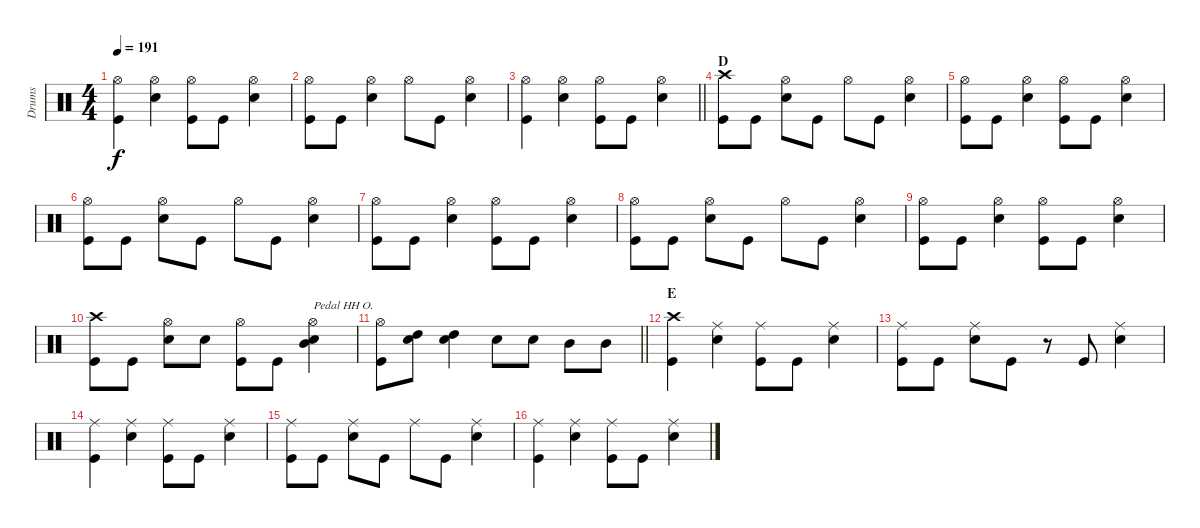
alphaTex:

\track ("Drums" "Drums") {instrument percussion}
\staff {score}
\articulation defaults
\ts (4 4)
\tempo 191
\clef neutral
\ks c
("Hi-Hat (open)" "Kick (hit)").4{dy f} ("Hi-Hat (open)" "Electric Snare (hit)").4 ("Hi-Hat (open)" "Kick (hit)").8 "Kick (hit)".8 ("Hi-Hat (open)" "Electric Snare (hit)").4 |
("Hi-Hat (open)" "Kick (hit)").8 "Kick (hit)".8 ("Hi-Hat (open)" "Electric Snare (hit)").4 "Hi-Hat (open)".8 "Kick (hit)".8 ("Hi-Hat (open)" "Electric Snare (hit)").4 |
\barLineRight lightlight
("Hi-Hat (open)" "Kick (hit)").4 ("Hi-Hat (open)" "Electric Snare (hit)").4 ("Hi-Hat (open)" "Kick (hit)").8 "Kick (hit)".8 ("Hi-Hat (open)" "Electric Snare (hit)").4 |
\section ("" "D")
("Crash high (hit)" "Kick (hit)").8 "Kick (hit)".8 ("Hi-Hat (open)" "Electric Snare (hit)").8 "Kick (hit)".8 "Hi-Hat (open)".8 "Kick (hit)".8 ("Hi-Hat (open)" "Electric Snare (hit)").4 |
("Hi-Hat (open)" "Kick (hit)").8 "Kick (hit)".8 ("Hi-Hat (open)" "Electric Snare (hit)").4 ("Hi-Hat (open)" "Kick (hit)").8 "Kick (hit)".8 ("Hi-Hat (open)" "Electric Snare (hit)").4 |
("Hi-Hat (open)" "Kick (hit)").8 "Kick (hit)".8 ("Hi-Hat (open)" "Electric Snare (hit)").8 "Kick (hit)".8 "Hi-Hat (open)".8 "Kick (hit)".8 ("Hi-Hat (open)" "Electric Snare (hit)").4 |
("Hi-Hat (open)" "Kick (hit)").8 "Kick (hit)".8 ("Hi-Hat (open)" "Electric Snare (hit)").4 ("Hi-Hat (open)" "Kick (hit)").8 "Kick (hit)".8 ("Hi-Hat (open)" "Electric Snare (hit)").4 |
("Hi-Hat (open)" "Kick (hit)").8 "Kick (hit)".8 ("Hi-Hat (open)" "Electric Snare (hit)").8 "Kick (hit)".8 "Hi-Hat (open)".8 "Kick (hit)".8 ("Hi-Hat (open)" "Electric Snare (hit)").4 |
("Hi-Hat (open)" "Kick (hit)").8 "Kick (hit)".8 ("Hi-Hat (open)" "Electric Snare (hit)").4 ("Hi-Hat (open)" "Kick (hit)").8 "Kick (hit)".8 ("Hi-Hat (open)" "Electric Snare (hit)").4 |
("Crash high (hit)" "Kick (hit)").8 "Kick (hit)".8 ("Hi-Hat (open)" "Electric Snare (hit)").8 "Electric Snare (hit)".8 ("Hi-Hat (open)" "Kick (hit)").8 "Kick (hit)".8 ("Mid Tom (hit)" "Electric Snare (hit)" "Hi-Hat (open)").4{txt "Pedal HH O."} |
\barLineRight lightlight
("Hi-Hat (open)" "Kick (hit)").8 ("High Tom (hit)" "Electric Snare (hit)").8 ("High Tom (hit)" "Electric Snare (hit)").4 "Electric Snare (hit)".8 "Electric Snare (hit)".8 "Mid Tom (hit)".8 "Mid Tom (hit)".8 |
\section ("" "E")
("Crash high (hit)" "Kick (hit)").4 ("Ride (middle)" "Electric Snare (hit)").4 ("Ride (middle)" "Kick (hit)").8 "Kick (hit)".8 ("Ride (middle)" "Electric Snare (hit)").4 |
("Ride (middle)" "Kick (hit)").8 "Kick (hit)".8 ("Ride (middle)" "Electric Snare (hit)").8 "Kick (hit)".8 r.8 "Kick (hit)".8 ("Ride (middle)" "Electric Snare (hit)").4 |
("Ride (middle)" "Kick (hit)").4 ("Ride (middle)" "Electric Snare (hit)").4 ("Ride (middle)" "Kick (hit)").8 "Kick (hit)".8 ("Ride (middle)" "Electric Snare (hit)").4 |
("Ride (middle)" "Kick (hit)").8 "Kick (hit)".8 ("Ride (middle)" "Electric Snare (hit)").8 "Kick (hit)".8 "Ride (middle)".8 "Kick (hit)".8 ("Ride (middle)" "Electric Snare (hit)").4 |
("Ride (middle)" "Kick (hit)").4 ("Ride (middle)" "Electric Snare (hit)").4 ("Ride (middle)" "Kick (hit)").8 "Kick (hit)".8 ("Ride (middle)" "Electric Snare (hit)").4
